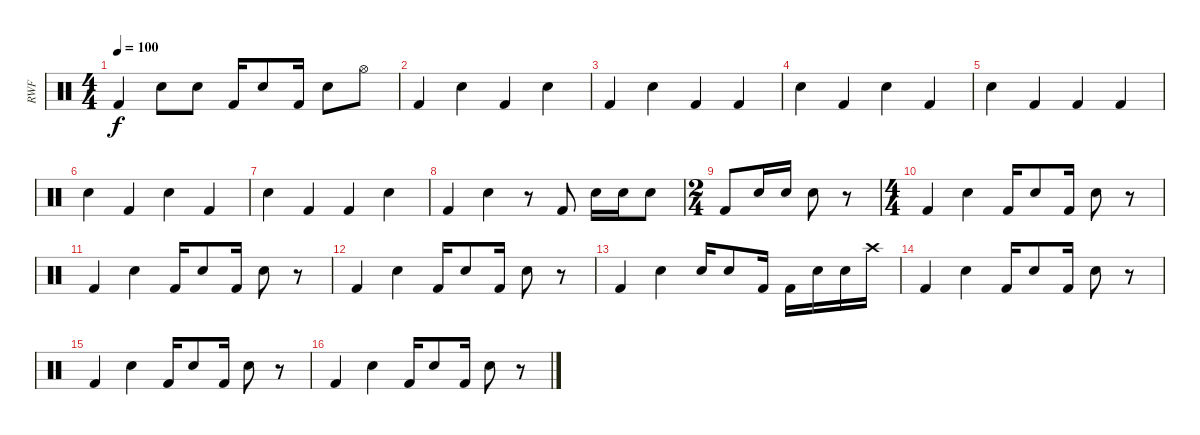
\track ("RWF" "RWF") {instrument percussion}
\staff {score}
\articulation defaults
\ts (4 4)
\tempo 100
\clef neutral
\ks c "Kick (hit) 2".4{dy f} "Electric Snare (hit)".8 "Electric Snare (hit)".8 "Kick (hit) 2".16 "Electric Snare (hit)".8 "Kick (hit) 2".16 "Electric Snare (hit)".8 "Hi-Hat (open)".8
|
"Kick (hit) 2".4 "Electric Snare (hit)".4 "Kick (hit) 2".4 "Electric Snare (hit)".4 |
"Kick (hit) 2".4 "Electric Snare (hit)".4 "Kick (hit) 2".4 "Kick (hit) 2".4 |
"Electric Snare (hit)".4 "Kick (hit) 2".4 "Electric Snare (hit)".4 "Kick (hit) 2".4 |
"Electric Snare (hit)".4 "Kick (hit) 2".4 "Kick (hit) 2".4 "Kick (hit) 2".4 |
"Electric Snare (hit)".4 "Kick (hit) 2".4 "Electric Snare (hit)".4 "Kick (hit) 2".4 |
"Electric Snare (hit)".4 "Kick (hit) 2".4 "Kick (hit) 2".4 "Electric Snare (hit)".4 |
"Kick (hit) 2".4 "Electric Snare (hit)".4 r.8 "Kick (hit) 2".8 "Electric Snare (hit)".16 "Electric Snare (hit)".16 "Electric Snare (hit)".8 |
\ts (2 4)
"Kick (hit) 2".8 "Electric Snare (hit)".16 "Electric Snare (hit)".16 "Electric Snare (hit)".8 r.8 |
\ts (4 4)
"Kick (hit) 2".4 "Electric Snare (hit)".4 "Kick (hit) 2".16 "Electric Snare (hit)".8 "Kick (hit) 2".16 "Electric Snare (hit)".8 r.8 |
"Kick (hit) 2".4 "Electric Snare (hit)".4 "Kick (hit) 2".16 "Electric Snare (hit)".8 "Kick (hit) 2".16 "Electric Snare (hit)".8 r.8 |
"Kick (hit) 2".4 "Electric Snare (hit)".4 "Kick (hit) 2".16 "Electric Snare (hit)".8 "Kick (hit) 2".16 "Electric Snare (hit)".8 r.8 |
"Kick (hit) 2".4 "Electric Snare (hit)".4 "Electric Snare (hit)".16 "Electric Snare (hit)".8 "Kick (hit) 2".16 "Kick (hit) 2".16 "Electric Snare (hit)".16 "Electric Snare (hit)".16 "Crash high (hit)".16 |
"Kick (hit) 2".4 "Electric Snare (hit)".4 "Kick (hit) 2".16 "Electric Snare (hit)".8 "Kick (hit) 2".16 "Electric Snare (hit)".8 r.8 |
"Kick (hit) 2".4 "Electric Snare (hit)".4 "Kick (hit) 2".16 "Electric Snare (hit)".8 "Kick (hit) 2".16 "Electric Snare (hit)".8 r.8 |
"Kick (hit) 2".4 "Electric Snare (hit)".4 "Kick (hit) 2".16 "Electric Snare (hit)".8 "Kick (hit) 2".16 "Electric Snare (hit)".8 r.8
